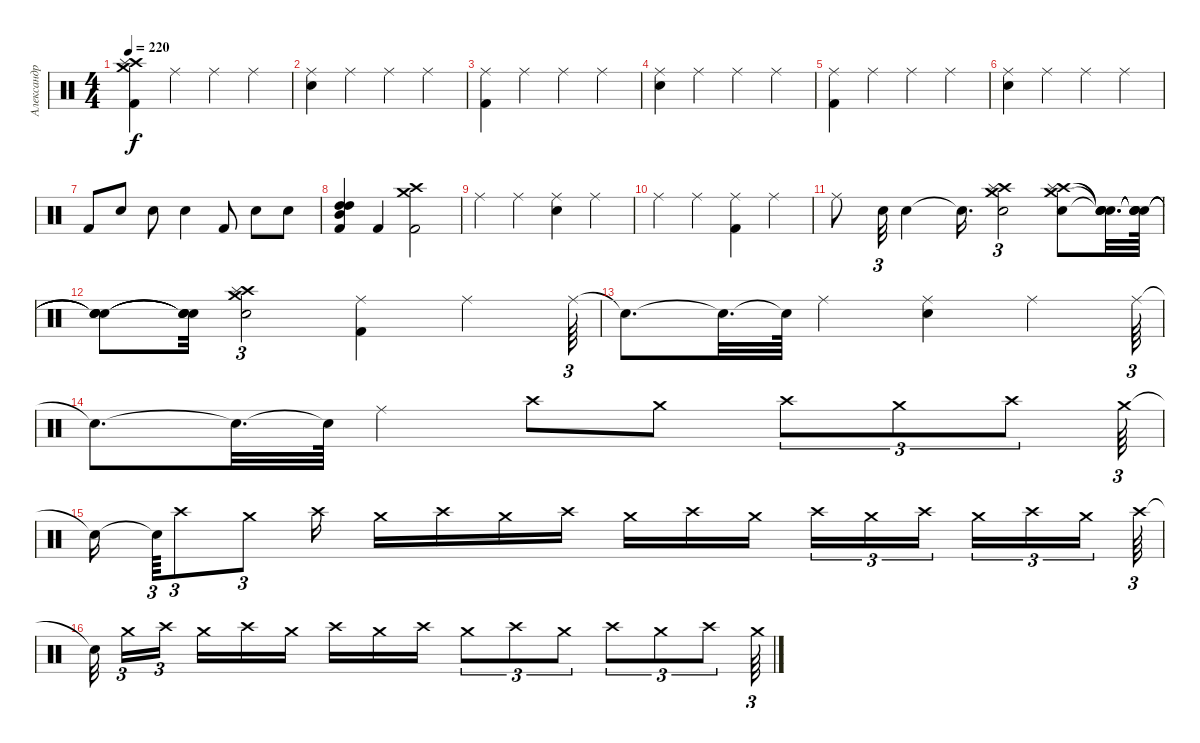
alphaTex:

\track ("Александр Карпухин" "Александр ") {instrument percussion}
\staff {score}
\articulation defaults
\ts (4 4)
\tempo 220
\clef neutral
\ks c
("Crash high (hit)" "Crash medium (hit)" "Splash (hit)" "Kick (hit) 2").4{dy f} "Ride (middle)".4 "Ride (middle)".4 "Ride (middle)".4 |
("Ride (middle)" "Snare (hit) 2").4 "Ride (middle)".4 "Ride (middle)".4 "Ride (middle)".4 |
("Ride (middle)" "Kick (hit) 2").4 "Ride (middle)".4 "Ride (middle)".4 "Ride (middle)".4 |
("Ride (middle)" "Snare (hit) 2").4 "Ride (middle)".4 "Ride (middle)".4 "Ride (middle)".4 |
("Ride (middle)" "Kick (hit) 2").4 "Ride (middle)".4 "Ride (middle)".4 "Ride (middle)".4 |
("Ride (middle)" "Snare (hit) 2").4 "Ride (middle)".4 "Ride (middle)".4 "Ride (middle)".4 |
"Kick (hit) 2".8 "Snare (hit) 2".8 "Snare (hit) 2".8 "Snare (hit) 2".4 "Kick (hit) 2".8 "Snare (hit) 2".8 "Snare (hit) 2".8 |
("High Tom (hit)" "Mid Tom (hit)" "High Tom (hit)" "Kick (hit) 2").4 "Kick (hit) 2".4 ("Crash high (hit)" "Crash medium (hit)" "Kick (hit) 2").2 |
"Ride (middle)".4 "Ride (middle)".4 ("Ride (middle)" "Snare (hit) 2").4 "Ride (middle)".4 |
"Ride (middle)".4 "Ride (middle)".4 ("Ride (middle)" "Kick (hit) 2").4 "Ride (middle)".4 |
"Ride (middle)".8 "Snare (hit) 2".32{tu (3 2)} "Snare (hit) 2".4 "Snare (hit)"{t}.16{d} ("Crash high (hit)" "Crash medium (hit)" "Splash (hit)" "Snare (hit) 2").2{tu (3 2)} ("Crash medium (hit)" "Crash high (hit)" "Splash (hit)" "Snare (hit) 2").8 ("Snare (hit)"{t} "Snare (hit)"{t} "Snare (hit)"{t} "Snare (hit)"{t}).32{d} ("Snare (hit)"{t} "Snare (hit)"{t} "Snare (hit)"{t} "Snare (hit)"{t}).64 |
("Snare (hit)"{t} "Snare (hit)"{t} "Snare (hit)"{t} "Snare (hit)"{t}).8 ("Snare (hit)"{t} "Snare (hit)"{t} "Snare (hit)"{t} "Snare (hit)"{t}).32 ("Crash high (hit)" "Crash medium (hit)" "Splash (hit)" "Snare (hit) 2").2{tu (3 2)} ("Ride (middle)" "Kick (hit) 2").4 "Ride (middle)".4 "Ride (middle)".64{tu (3 2)} |
"Snare (hit)"{t}.8{d} "Snare (hit)"{t}.32{d} "Snare (hit)"{t}.64 "Ride (middle)".4 ("Ride (middle)" "Snare (hit) 2").4 "Ride (middle)".4 "Ride (middle)".64{tu (3 2)} |
"Snare (hit)"{t}.8{d} "Snare (hit)"{t}.32{d} "Snare (hit)"{t}.64 "Ride (middle)".4 "Crash high (hit)".8 "Crash medium (hit)".8 "Crash high (hit)".8{tu (3 2)} "Crash medium (hit)".8{tu (3 2)} "Crash high (hit)".8{tu (3 2)} "Crash medium (hit)".64{tu (3 2)} |
"Snare (hit)"{t}.16{beam splitsecondary} "Snare (hit)"{t}.64{tu (3 2)} "Crash high (hit)".8{tu (3 2)} "Crash medium (hit)".8{tu (3 2)} "Crash high (hit)".16 "Crash medium (hit)".16 "Crash high (hit)".16 "Crash medium (hit)".16 "Crash high (hit)".16 "Crash medium (hit)".16 "Crash high (hit)".16 "Crash medium (hit)".16{beam splitsecondary} "Crash high (hit)".16{tu (3 2)} "Crash medium (hit)".16{tu (3 2)} "Crash high (hit)".16{tu (3 2) beam splitsecondary} "Crash medium (hit)".16{tu (3 2)} "Crash high (hit)".16{tu (3 2)} "Crash medium (hit)".16{tu (3 2) beam splitsecondary} "Crash high (hit)".64{tu (3 2)} |
"Snare (hit)"{t}.32{beam splitsecondary} "Crash medium (hit)".16{tu (3 2)} "Crash high (hit)".16{tu (3 2) beam splitsecondary} "Crash medium (hit)".16 "Crash high (hit)".16 "Crash medium (hit)".16 "Crash high (hit)".16 "Crash medium (hit)".16 "Crash high (hit)".16 "Crash medium (hit)".8{tu (3 2)} "Crash high (hit)".8{tu (3 2)} "Crash medium (hit)".8{tu (3 2)} "Crash high (hit)".8{tu (3 2)} "Crash medium (hit)".8{tu (3 2)} "Crash high (hit)".8{tu (3 2)} "Crash medium (hit)".64{tu (3 2)}
